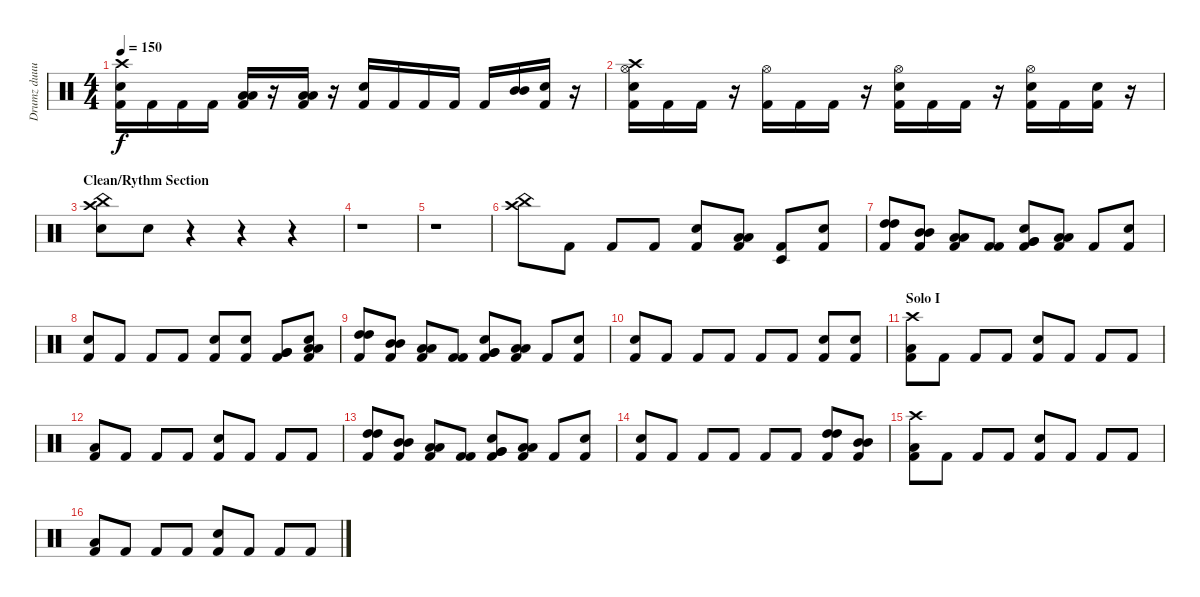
\track ("Drumz duuuuude" "Drumz duuu") {instrument percussion}
\staff {score}
\articulation defaults
\ts (4 4)
\tempo 150
\clef neutral
\ks c
("Crash high (hit)" "Kick (hit) 2" "Snare (hit) 2").16{dy f} "Kick (hit) 2".16 "Kick (hit) 2".16 "Kick (hit) 2".16 ("Kick (hit) 2" "Low Floor Tom (hit)" "Low Floor Tom (hit)").16 r.16 ("Kick (hit) 2" "Low Floor Tom (hit)" "Low Floor Tom (hit)").16 r.16 ("Kick (hit) 2" "Electric Snare (hit)").16 "Kick (hit) 2".16 "Kick (hit) 2".16 "Kick (hit) 2".16 "Kick (hit) 2".16 ("Mid Tom (hit)" "Mid Tom (hit)").16 ("Kick (hit) 2" "Electric Snare (hit)").16 r.16 |
("Hi-Hat (open)" "Kick (hit) 2" "Snare (hit) 2" "Crash high (hit)").16 "Kick (hit) 2".16 "Kick (hit) 2".16 r.16 ("Hi-Hat (open)" "Kick (hit) 2").16 "Kick (hit) 2".16 "Kick (hit) 2".16 r.16 ("Hi-Hat (open)" "Kick (hit) 2" "Snare (hit) 2").16 "Kick (hit) 2".16 "Kick (hit) 2".16 r.16 ("Hi-Hat (open)" "Kick (hit) 2" "Electric Snare (hit)").16 "Kick (hit) 2".16 ("Kick (hit) 2" "Electric Snare (hit)").16 r.16 |
\section ("" "Clean/Rythm Section")
("China (hit)" "Crash high (hit)" "Electric Snare (hit)").8 "Electric Snare (hit)".8 r.4 r.4 r.4 |
r.1 |
r.1 |
("China (hit)" "Crash high (hit)").8 "Kick (hit) 2".8 "Kick (hit) 2".8 "Kick (hit) 2".8 ("Kick (hit) 2" "Electric Snare (hit)").8 ("Kick (hit) 2" "Low Floor Tom (hit)" "Low Floor Tom (hit)").8 ("Kick (hit) 2" "Timbale low (hit)").8 ("Kick (hit) 2" "Snare (hit) 2").8 |
("Kick (hit) 2" "High Tom (hit)" "High Tom (hit)").8 ("Kick (hit) 2" "Mid Tom (hit)" "Mid Tom (hit)").8 ("Kick (hit) 2" "Low Tom (hit)" "Low Tom (hit)").8 ("Kick (hit) 2" "Kick (hit) 2").8 ("Kick (hit) 2" "Very Low Tom (hit)" "Very Low Tom (hit)" "Electric Snare (hit)").8 ("Kick (hit) 2" "Low Floor Tom (hit)" "Low Floor Tom (hit)").8 "Kick (hit) 2".8 ("Kick (hit) 2" "Electric Snare (hit)").8 |
("Kick (hit) 2" "Snare (hit) 2").8 "Kick (hit) 2".8 "Kick (hit) 2".8 "Kick (hit) 2".8 ("Kick (hit) 2" "Electric Snare (hit)").8 ("Kick (hit) 2" "Electric Snare (hit)").8 ("Kick (hit) 2" "Very Low Tom (hit)" "Very Low Tom (hit)").8 ("Kick (hit) 2" "Low Floor Tom (hit)" "Low Floor Tom (hit)" "Electric Snare (hit)").8 |
("Kick (hit) 2" "High Tom (hit)" "High Tom (hit)").8 ("Kick (hit) 2" "Mid Tom (hit)" "Mid Tom (hit)").8 ("Kick (hit) 2" "Low Tom (hit)" "Low Tom (hit)").8 ("Kick (hit) 2" "Kick (hit) 2").8 ("Kick (hit) 2" "Very Low Tom (hit)" "Very Low Tom (hit)" "Electric Snare (hit)").8 ("Kick (hit) 2" "Low Floor Tom (hit)" "Low Floor Tom (hit)").8 "Kick (hit) 2".8 ("Kick (hit) 2" "Electric Snare (hit)").8 |
("Kick (hit) 2" "Snare (hit) 2").8 "Kick (hit) 2".8 "Kick (hit) 2".8 "Kick (hit) 2".8 "Kick (hit) 2".8 "Kick (hit) 2".8 ("Kick (hit) 2" "Electric Snare (hit)").8 ("Kick (hit) 2" "Electric Snare (hit)").8 |
\section ("" "Solo I")
("Kick (hit) 2" "Crash high (hit)" "Low Floor Tom (hit)").8 "Kick (hit) 2".8 "Kick (hit) 2".8 "Kick (hit) 2".8 ("Kick (hit) 2" "Snare (hit) 2").8 "Kick (hit) 2".8 "Kick (hit) 2".8 "Kick (hit) 2".8 |
("Kick (hit) 2" "Low Floor Tom (hit)").8 "Kick (hit) 2".8 "Kick (hit) 2".8 "Kick (hit) 2".8 ("Kick (hit) 2" "Snare (hit) 2").8 "Kick (hit) 2".8 "Kick (hit) 2".8 "Kick (hit) 2".8 |
("Kick (hit) 2" "High Tom (hit)" "High Tom (hit)").8 ("Kick (hit) 2" "Mid Tom (hit)" "Mid Tom (hit)").8 ("Kick (hit) 2" "Low Tom (hit)" "Low Tom (hit)").8 ("Kick (hit) 2" "Kick (hit) 2").8 ("Kick (hit) 2" "Very Low Tom (hit)" "Very Low Tom (hit)" "Electric Snare (hit)").8 ("Kick (hit) 2" "Low Floor Tom (hit)" "Low Floor Tom (hit)").8 "Kick (hit) 2".8 ("Kick (hit) 2" "Electric Snare (hit)").8 |
("Kick (hit) 2" "Snare (hit) 2").8 "Kick (hit) 2".8 "Kick (hit) 2".8 "Kick (hit) 2".8 "Kick (hit) 2".8 "Kick (hit) 2".8 ("Kick (hit) 2" "High Tom (hit)" "High Tom (hit)").8 ("Kick (hit) 2" "Mid Tom (hit)" "Mid Tom (hit)").8 |
("Kick (hit) 2" "Crash high (hit)" "Low Floor Tom (hit)").8 "Kick (hit) 2".8 "Kick (hit) 2".8 "Kick (hit) 2".8 ("Kick (hit) 2" "Snare (hit) 2").8 "Kick (hit) 2".8 "Kick (hit) 2".8 "Kick (hit) 2".8 |
("Kick (hit) 2" "Low Floor Tom (hit)").8 "Kick (hit) 2".8 "Kick (hit) 2".8 "Kick (hit) 2".8 ("Kick (hit) 2" "Snare (hit) 2").8 "Kick (hit) 2".8 "Kick (hit) 2".8 "Kick (hit) 2".8
